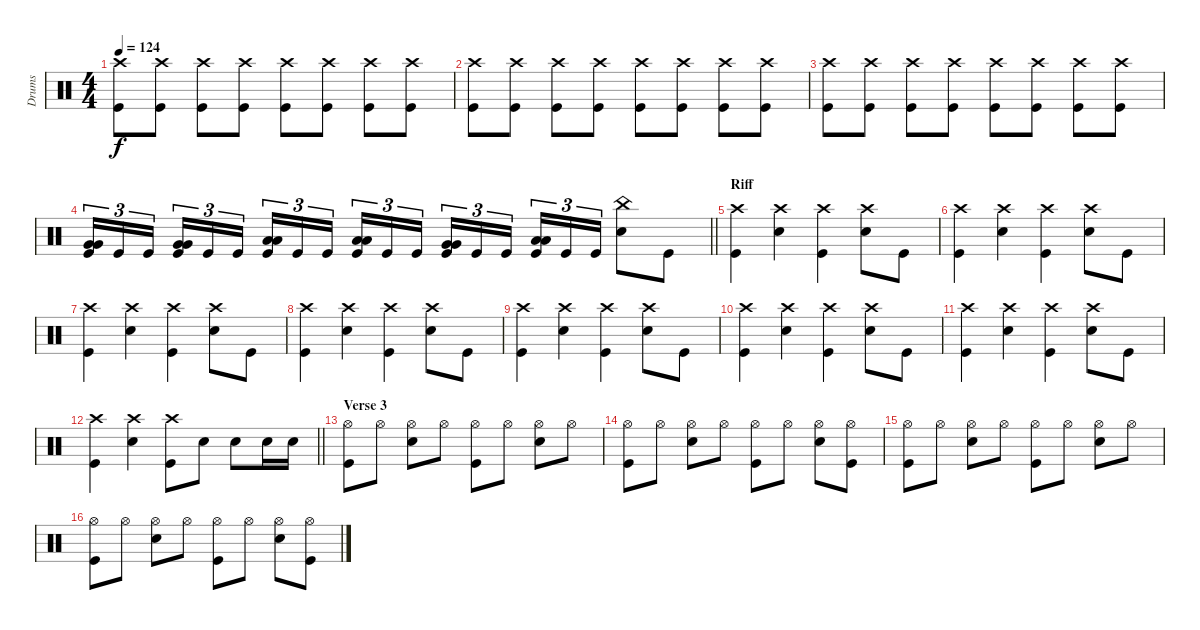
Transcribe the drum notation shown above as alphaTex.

\track ("Drums" "Drums") {instrument percussion}
\staff {score}
\articulation defaults
\ts (4 4)
\tempo 124
\clef neutral
\ks c
("Kick (hit)" "Crash high (hit)").8{dy f} ("Kick (hit)" "Crash high (hit)").8 ("Kick (hit)" "Crash high (hit)").8 ("Kick (hit)" "Crash high (hit)").8 ("Kick (hit)" "Crash high (hit)").8 ("Kick (hit)" "Crash high (hit)").8 ("Kick (hit)" "Crash high (hit)").8 ("Kick (hit)" "Crash high (hit)").8 |
("Kick (hit)" "Crash high (hit)").8 ("Kick (hit)" "Crash high (hit)").8 ("Kick (hit)" "Crash high (hit)").8 ("Kick (hit)" "Crash high (hit)").8 ("Kick (hit)" "Crash high (hit)").8 ("Kick (hit)" "Crash high (hit)").8 ("Kick (hit)" "Crash high (hit)").8 ("Kick (hit)" "Crash high (hit)").8 |
("Kick (hit)" "Crash high (hit)").8 ("Kick (hit)" "Crash high (hit)").8 ("Kick (hit)" "Crash high (hit)").8 ("Kick (hit)" "Crash high (hit)").8 ("Kick (hit)" "Crash high (hit)").8 ("Kick (hit)" "Crash high (hit)").8 ("Kick (hit)" "Crash high (hit)").8 ("Kick (hit)" "Crash high (hit)").8 |
\barLineRight lightlight
("Very Low Tom (hit)" "Very Low Tom (hit)" "Kick (hit)").16{tu (3 2)} "Kick (hit)".16{tu (3 2)} "Kick (hit)".16{tu (3 2) beam splitsecondary} ("Very Low Tom (hit)" "Very Low Tom (hit)" "Kick (hit)").16{tu (3 2)} "Kick (hit)".16{tu (3 2)} "Kick (hit)".16{tu (3 2)} ("Low Tom (hit)" "Low Tom (hit)" "Kick (hit)").16{tu (3 2)} "Kick (hit)".16{tu (3 2)} "Kick (hit)".16{tu (3 2) beam splitsecondary} ("Low Tom (hit)" "Low Tom (hit)" "Kick (hit)").16{tu (3 2)} "Kick (hit)".16{tu (3 2)} "Kick (hit)".16{tu (3 2)} ("Very Low Tom (hit)" "Very Low Tom (hit)" "Kick (hit)").16{tu (3 2)} "Kick (hit)".16{tu (3 2)} "Kick (hit)".16{tu (3 2) beam splitsecondary} ("Low Floor Tom (hit)" "Low Floor Tom (hit)" "Kick (hit)").16{tu (3 2)} "Kick (hit)".16{tu (3 2)} "Kick (hit)".16{tu (3 2)} ("Snare (hit) 2" "China (hit)").8 "Kick (hit)".8 |
\section ("" "Riff")
("Kick (hit)" "Crash high (hit)").4 ("Snare (hit) 2" "Crash high (hit)").4 ("Kick (hit)" "Crash high (hit)").4 ("Snare (hit) 2" "Crash high (hit)").8 "Kick (hit)".8 |
("Kick (hit)" "Crash high (hit)").4 ("Snare (hit) 2" "Crash high (hit)").4 ("Kick (hit)" "Crash high (hit)").4 ("Snare (hit) 2" "Crash high (hit)").8 "Kick (hit)".8 |
("Kick (hit)" "Crash high (hit)").4 ("Snare (hit) 2" "Crash high (hit)").4 ("Kick (hit)" "Crash high (hit)").4 ("Snare (hit) 2" "Crash high (hit)").8 "Kick (hit)".8 |
("Kick (hit)" "Crash high (hit)").4 ("Snare (hit) 2" "Crash high (hit)").4 ("Kick (hit)" "Crash high (hit)").4 ("Snare (hit) 2" "Crash high (hit)").8 "Kick (hit)".8 |
("Kick (hit)" "Crash high (hit)").4 ("Snare (hit) 2" "Crash high (hit)").4 ("Kick (hit)" "Crash high (hit)").4 ("Snare (hit) 2" "Crash high (hit)").8 "Kick (hit)".8 |
("Kick (hit)" "Crash high (hit)").4 ("Snare (hit) 2" "Crash high (hit)").4 ("Kick (hit)" "Crash high (hit)").4 ("Snare (hit) 2" "Crash high (hit)").8 "Kick (hit)".8 |
("Kick (hit)" "Crash high (hit)").4 ("Snare (hit) 2" "Crash high (hit)").4 ("Kick (hit)" "Crash high (hit)").4 ("Snare (hit) 2" "Crash high (hit)").8 "Kick (hit)".8 |
\barLineRight lightlight
("Kick (hit)" "Crash high (hit)").4 ("Snare (hit) 2" "Crash high (hit)").4 ("Kick (hit)" "Crash high (hit)").8 "Snare (hit) 2".8 "Snare (hit) 2".8 "Snare (hit) 2".16 "Snare (hit) 2".16 |
\section ("" "Verse 3")
("Kick (hit)" "Hi-Hat (open)").8 "Hi-Hat (open)".8 ("Snare (hit) 2" "Hi-Hat (open)").8 "Hi-Hat (open)".8 ("Kick (hit)" "Hi-Hat (open)").8 "Hi-Hat (open)".8 ("Snare (hit) 2" "Hi-Hat (open)").8 "Hi-Hat (open)".8 |
("Kick (hit)" "Hi-Hat (open)").8 "Hi-Hat (open)".8 ("Snare (hit) 2" "Hi-Hat (open)").8 "Hi-Hat (open)".8 ("Kick (hit)" "Hi-Hat (open)").8 "Hi-Hat (open)".8 ("Snare (hit) 2" "Hi-Hat (open)").8 ("Hi-Hat (open)" "Kick (hit)").8 |
("Kick (hit)" "Hi-Hat (open)").8 "Hi-Hat (open)".8 ("Snare (hit) 2" "Hi-Hat (open)").8 "Hi-Hat (open)".8 ("Kick (hit)" "Hi-Hat (open)").8 "Hi-Hat (open)".8 ("Snare (hit) 2" "Hi-Hat (open)").8 "Hi-Hat (open)".8 |
("Kick (hit)" "Hi-Hat (open)").8 "Hi-Hat (open)".8 ("Snare (hit) 2" "Hi-Hat (open)").8 "Hi-Hat (open)".8 ("Kick (hit)" "Hi-Hat (open)").8 "Hi-Hat (open)".8 ("Snare (hit) 2" "Hi-Hat (open)").8 ("Hi-Hat (open)" "Kick (hit)").8
